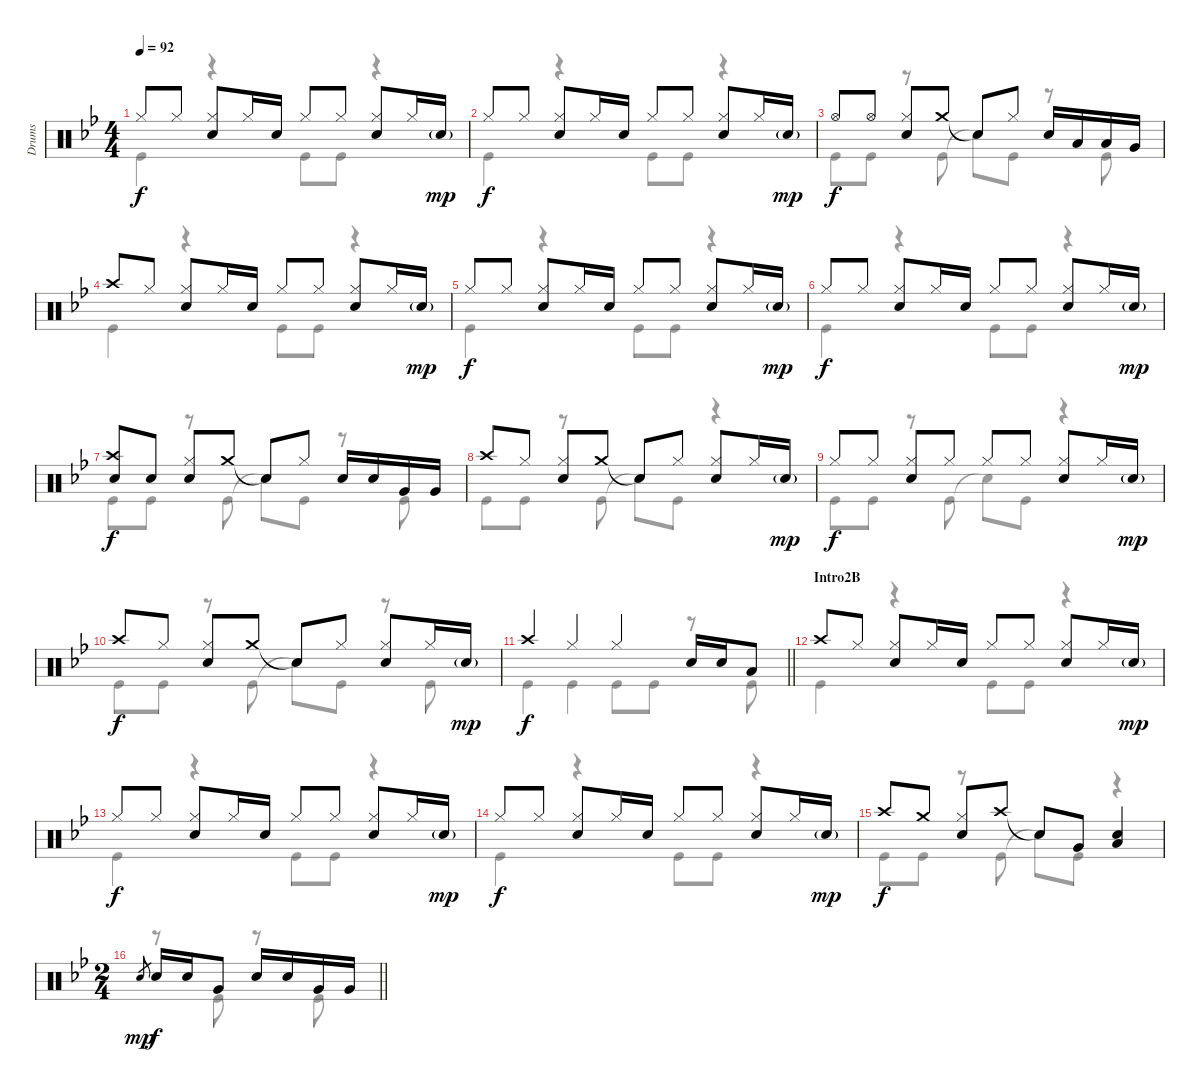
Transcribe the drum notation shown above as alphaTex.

\track ("Drums" "Drums") {instrument percussion}
\staff {score}
\articulation defaults
\voice
\ts (4 4)
\tempo 92
\clef neutral
\ks bb "Hi-Hat (closed)".8{dy f} "Hi-Hat (closed)".8
("Hi-Hat (closed)" "Snare (hit) 2").8 "Hi-Hat (closed)".16 "Snare (hit) 2".16 "Hi-Hat (closed)".8 "Hi-Hat (closed)".8 ("Hi-Hat (closed)" "Snare (hit) 2").8 "Hi-Hat (closed)".16 "Snare (hit) 2"{g}.16{dy mp} |
"Hi-Hat (closed)".8{dy f} "Hi-Hat (closed)".8 ("Hi-Hat (closed)" "Snare (hit) 2").8 "Hi-Hat (closed)".16 "Snare (hit) 2".16 "Hi-Hat (closed)".8 "Hi-Hat (closed)".8 ("Hi-Hat (closed)" "Snare (hit) 2").8 "Hi-Hat (closed)".16 "Snare (hit) 2"{g}.16{dy mp} |
"Hi-Hat (open)".8{dy f} "Hi-Hat (open)".8 ("Hi-Hat (closed)" "Snare (hit) 2").8 "Crash medium (hit)".8 "Snare (hit)"{t}.8 "Hi-Hat (closed)".8 "Snare (hit) 2".16 "Low Tom (hit)".16 "Low Tom (hit)".16 "Very Low Tom (hit)".16 |
"Crash high (hit)".8 "Hi-Hat (closed)".8 ("Hi-Hat (closed)" "Snare (hit) 2").8 "Hi-Hat (closed)".16 "Snare (hit) 2".16 "Hi-Hat (closed)".8 "Hi-Hat (closed)".8 ("Hi-Hat (closed)" "Snare (hit) 2").8 "Hi-Hat (closed)".16 "Snare (hit) 2"{g}.16{dy mp} |
"Hi-Hat (closed)".8{dy f} "Hi-Hat (closed)".8 ("Hi-Hat (closed)" "Snare (hit) 2").8 "Hi-Hat (closed)".16 "Snare (hit) 2".16 "Hi-Hat (closed)".8 "Hi-Hat (closed)".8 ("Hi-Hat (closed)" "Snare (hit) 2").8 "Hi-Hat (closed)".16 "Snare (hit) 2"{g}.16{dy mp} |
"Hi-Hat (closed)".8{dy f} "Hi-Hat (closed)".8 ("Hi-Hat (closed)" "Snare (hit) 2").8 "Hi-Hat (closed)".16 "Snare (hit) 2".16 "Hi-Hat (closed)".8 "Hi-Hat (closed)".8 ("Hi-Hat (closed)" "Snare (hit) 2").8 "Hi-Hat (closed)".16 "Snare (hit) 2"{g}.16{dy mp} |
("Crash high (hit)" "Snare (hit) 2").8{dy f} "Snare (hit) 2".8 ("Hi-Hat (closed)" "Snare (hit) 2").8 "Crash medium (hit)".8 "Snare (hit)"{t}.8 "Hi-Hat (closed)".8 "Snare (hit) 2".16 "Snare (hit) 2".16 "Very Low Tom (hit)".16 "Very Low Tom (hit)".16 |
"Crash high (hit)".8 "Hi-Hat (closed)".8 ("Hi-Hat (closed)" "Snare (hit) 2").8 "Crash medium (hit)".8 "Snare (hit)"{t}.8 "Hi-Hat (closed)".8 ("Hi-Hat (closed)" "Snare (hit) 2").8 "Hi-Hat (closed)".16 "Snare (hit) 2"{g}.16{dy mp} |
"Hi-Hat (closed)".8{dy f} "Hi-Hat (closed)".8 ("Hi-Hat (closed)" "Snare (hit) 2").8 "Hi-Hat (closed)".8 "Hi-Hat (closed)".8 "Hi-Hat (closed)".8 ("Hi-Hat (closed)" "Snare (hit) 2").8 "Hi-Hat (closed)".16 "Snare (hit) 2"{g}.16{dy mp} |
"Crash high (hit)".8{dy f} "Hi-Hat (closed)".8 ("Hi-Hat (closed)" "Snare (hit) 2").8 "Crash medium (hit)".8 "Snare (hit)"{t}.8 "Hi-Hat (closed)".8 ("Hi-Hat (closed)" "Snare (hit) 2").8 "Hi-Hat (closed)".16 "Snare (hit) 2"{g}.16{dy mp} |
\barLineRight lightlight "Crash high (hit)".4{dy f} "Hi-Hat (closed)".4 "Hi-Hat (closed)".4 "Snare (hit) 2".16 "Snare (hit) 2".16 "Low Tom (hit)".8
|
\section ("" "Intro2B")
"Crash high (hit)".8 "Hi-Hat (closed)".8 ("Hi-Hat (closed)" "Snare (hit) 2").8 "Hi-Hat (closed)".16 "Snare (hit) 2".16 "Hi-Hat (closed)".8 "Hi-Hat (closed)".8 ("Hi-Hat (closed)" "Snare (hit) 2").8 "Hi-Hat (closed)".16 "Snare (hit) 2"{g}.16{dy mp} |
"Hi-Hat (closed)".8{dy f} "Hi-Hat (closed)".8 ("Hi-Hat (closed)" "Snare (hit) 2").8 "Hi-Hat (closed)".16 "Snare (hit) 2".16 "Hi-Hat (closed)".8 "Hi-Hat (closed)".8 ("Hi-Hat (closed)" "Snare (hit) 2").8 "Hi-Hat (closed)".16 "Snare (hit) 2"{g}.16{dy mp} |
"Hi-Hat (closed)".8{dy f} "Hi-Hat (closed)".8 ("Hi-Hat (closed)" "Snare (hit) 2").8 "Hi-Hat (closed)".16 "Snare (hit) 2".16 "Hi-Hat (closed)".8 "Hi-Hat (closed)".8 ("Hi-Hat (closed)" "Snare (hit) 2").8 "Hi-Hat (closed)".16 "Snare (hit) 2"{g}.16{dy mp} |
"Crash high (hit)".8{dy f} "Crash medium (hit)".8 ("Hi-Hat (closed)" "Snare (hit) 2").8 "Crash high (hit)".8 "Snare (hit)"{t}.8 "Very Low Tom (hit)".8 ("Low Tom (hit)" "Snare (hit) 2").4 |
\ts (2 4)
\barLineRight lightlight "Snare (hit) 2".8{gr dy mp} "Snare (hit) 2".16{dy f} "Snare (hit) 2".16 "Very Low Tom (hit)".8 "Snare (hit) 2".16 "Snare (hit) 2".16 "Very Low Tom (hit)".16 "Very Low Tom (hit)".16
\voice
\clef neutral
\ottava regular
\simile none
\ks bb "Kick (hit)".4{dy f}
r.4 "Kick (hit)".8 "Kick (hit)".8 r.4 |
"Kick (hit)".4 r.4 "Kick (hit)".8 "Kick (hit)".8 r.4 |
"Kick (hit)".8 "Kick (hit)".8 r.8 "Kick (hit)".8 "Snare (hit)"{t}.8 "Kick (hit)".8 r.8 "Kick (hit)".8 |
"Kick (hit)".4 r.4 "Kick (hit)".8 "Kick (hit)".8 r.4 |
"Kick (hit)".4 r.4 "Kick (hit)".8 "Kick (hit)".8 r.4 |
"Kick (hit)".4 r.4 "Kick (hit)".8 "Kick (hit)".8 r.4 |
"Kick (hit)".8 "Kick (hit)".8 r.8 "Kick (hit)".8 "Snare (hit)"{t}.8 "Kick (hit)".8 r.8 "Kick (hit)".8 |
"Kick (hit)".8 "Kick (hit)".8 r.8 "Kick (hit)".8 "Snare (hit)"{t}.8 "Kick (hit)".8 r.4 |
"Kick (hit)".8 "Kick (hit)".8 r.8 "Kick (hit)".8 "Snare (hit)"{t}.8 "Kick (hit)".8 r.4 |
"Kick (hit)".8 "Kick (hit)".8 r.8 "Kick (hit)".8 "Snare (hit)"{t}.8 "Kick (hit)".8 r.8 "Kick (hit)".8 |
\barLineRight lightlight "Kick (hit)".4 "Kick (hit)".4 "Kick (hit)".8 "Kick (hit)".8
r.8 "Kick (hit)".8 |
"Kick (hit)".4 r.4 "Kick (hit)".8 "Kick (hit)".8 r.4 |
"Kick (hit)".4 r.4 "Kick (hit)".8 "Kick (hit)".8 r.4 |
"Kick (hit)".4 r.4 "Kick (hit)".8 "Kick (hit)".8 r.4 |
"Kick (hit)".8 "Kick (hit)".8 r.8 "Kick (hit)".8 "Snare (hit)"{t}.8 "Kick (hit)".8 r.4 |
\barLineRight lightlight
r.8 "Kick (hit)".8 r.8 "Kick (hit)".8
